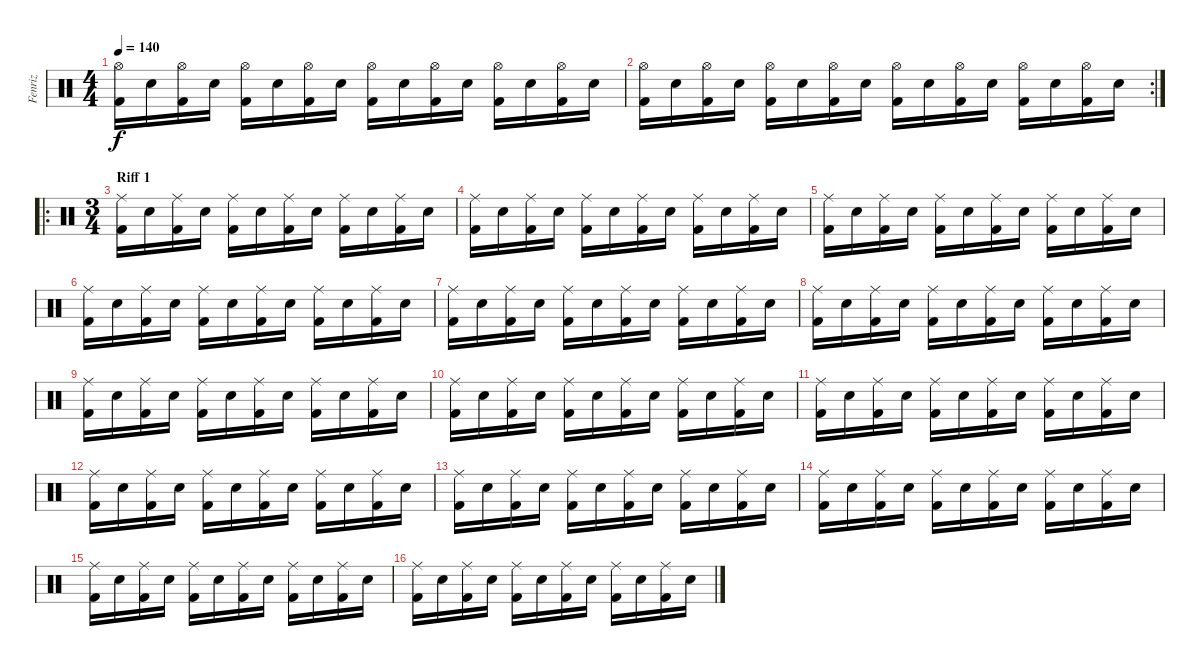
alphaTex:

\track ("Fenriz" "Fenriz") {instrument percussion}
\staff {score}
\articulation defaults
\ts (4 4)
\tempo 140
\clef neutral
\ks c
("Hi-Hat (open)" "Kick (hit) 2").16{dy f} "Snare (hit) 2".16 ("Hi-Hat (open)" "Kick (hit) 2").16 "Snare (hit) 2".16 ("Hi-Hat (open)" "Kick (hit) 2").16 "Snare (hit) 2".16 ("Hi-Hat (open)" "Kick (hit) 2").16 "Snare (hit) 2".16 ("Hi-Hat (open)" "Kick (hit) 2").16 "Snare (hit) 2".16 ("Hi-Hat (open)" "Kick (hit) 2").16 "Snare (hit) 2".16 ("Hi-Hat (open)" "Kick (hit) 2").16 "Snare (hit) 2".16 ("Hi-Hat (open)" "Kick (hit) 2").16 "Snare (hit) 2".16 |
\rc 2
("Hi-Hat (open)" "Kick (hit) 2").16 "Snare (hit) 2".16 ("Hi-Hat (open)" "Kick (hit) 2").16 "Snare (hit) 2".16 ("Hi-Hat (open)" "Kick (hit) 2").16 "Snare (hit) 2".16 ("Hi-Hat (open)" "Kick (hit) 2").16 "Snare (hit) 2".16 ("Hi-Hat (open)" "Kick (hit) 2").16 "Snare (hit) 2".16 ("Hi-Hat (open)" "Kick (hit) 2").16 "Snare (hit) 2".16 ("Hi-Hat (open)" "Kick (hit) 2").16 "Snare (hit) 2".16 ("Hi-Hat (open)" "Kick (hit) 2").16 "Snare (hit) 2".16 |
\ro
\ts (3 4)
\section ("" "Riff 1")
("Ride (middle)" "Kick (hit) 2").16 "Snare (hit) 2".16 ("Ride (middle)" "Kick (hit) 2").16 "Snare (hit) 2".16 ("Ride (middle)" "Kick (hit) 2").16 "Snare (hit) 2".16 ("Ride (middle)" "Kick (hit) 2").16 "Snare (hit) 2".16 ("Ride (middle)" "Kick (hit) 2").16 "Snare (hit) 2".16 ("Ride (middle)" "Kick (hit) 2").16 "Snare (hit) 2".16 |
("Ride (middle)" "Kick (hit) 2").16 "Snare (hit) 2".16 ("Ride (middle)" "Kick (hit) 2").16 "Snare (hit) 2".16 ("Ride (middle)" "Kick (hit) 2").16 "Snare (hit) 2".16 ("Ride (middle)" "Kick (hit) 2").16 "Snare (hit) 2".16 ("Ride (middle)" "Kick (hit) 2").16 "Snare (hit) 2".16 ("Ride (middle)" "Kick (hit) 2").16 "Snare (hit) 2".16 |
("Ride (middle)" "Kick (hit) 2").16 "Snare (hit) 2".16 ("Ride (middle)" "Kick (hit) 2").16 "Snare (hit) 2".16 ("Ride (middle)" "Kick (hit) 2").16 "Snare (hit) 2".16 ("Ride (middle)" "Kick (hit) 2").16 "Snare (hit) 2".16 ("Ride (middle)" "Kick (hit) 2").16 "Snare (hit) 2".16 ("Ride (middle)" "Kick (hit) 2").16 "Snare (hit) 2".16 |
("Ride (middle)" "Kick (hit) 2").16 "Snare (hit) 2".16 ("Ride (middle)" "Kick (hit) 2").16 "Snare (hit) 2".16 ("Ride (middle)" "Kick (hit) 2").16 "Snare (hit) 2".16 ("Ride (middle)" "Kick (hit) 2").16 "Snare (hit) 2".16 ("Ride (middle)" "Kick (hit) 2").16 "Snare (hit) 2".16 ("Ride (middle)" "Kick (hit) 2").16 "Snare (hit) 2".16 |
("Ride (middle)" "Kick (hit) 2").16 "Snare (hit) 2".16 ("Ride (middle)" "Kick (hit) 2").16 "Snare (hit) 2".16 ("Ride (middle)" "Kick (hit) 2").16 "Snare (hit) 2".16 ("Ride (middle)" "Kick (hit) 2").16 "Snare (hit) 2".16 ("Ride (middle)" "Kick (hit) 2").16 "Snare (hit) 2".16 ("Ride (middle)" "Kick (hit) 2").16 "Snare (hit) 2".16 |
("Ride (middle)" "Kick (hit) 2").16 "Snare (hit) 2".16 ("Ride (middle)" "Kick (hit) 2").16 "Snare (hit) 2".16 ("Ride (middle)" "Kick (hit) 2").16 "Snare (hit) 2".16 ("Ride (middle)" "Kick (hit) 2").16 "Snare (hit) 2".16 ("Ride (middle)" "Kick (hit) 2").16 "Snare (hit) 2".16 ("Ride (middle)" "Kick (hit) 2").16 "Snare (hit) 2".16 |
("Ride (middle)" "Kick (hit) 2").16 "Snare (hit) 2".16 ("Ride (middle)" "Kick (hit) 2").16 "Snare (hit) 2".16 ("Ride (middle)" "Kick (hit) 2").16 "Snare (hit) 2".16 ("Ride (middle)" "Kick (hit) 2").16 "Snare (hit) 2".16 ("Ride (middle)" "Kick (hit) 2").16 "Snare (hit) 2".16 ("Ride (middle)" "Kick (hit) 2").16 "Snare (hit) 2".16 |
("Ride (middle)" "Kick (hit) 2").16 "Snare (hit) 2".16 ("Ride (middle)" "Kick (hit) 2").16 "Snare (hit) 2".16 ("Ride (middle)" "Kick (hit) 2").16 "Snare (hit) 2".16 ("Ride (middle)" "Kick (hit) 2").16 "Snare (hit) 2".16 ("Ride (middle)" "Kick (hit) 2").16 "Snare (hit) 2".16 ("Ride (middle)" "Kick (hit) 2").16 "Snare (hit) 2".16 |
("Ride (middle)" "Kick (hit) 2").16 "Snare (hit) 2".16 ("Ride (middle)" "Kick (hit) 2").16 "Snare (hit) 2".16 ("Ride (middle)" "Kick (hit) 2").16 "Snare (hit) 2".16 ("Ride (middle)" "Kick (hit) 2").16 "Snare (hit) 2".16 ("Ride (middle)" "Kick (hit) 2").16 "Snare (hit) 2".16 ("Ride (middle)" "Kick (hit) 2").16 "Snare (hit) 2".16 |
("Ride (middle)" "Kick (hit) 2").16 "Snare (hit) 2".16 ("Ride (middle)" "Kick (hit) 2").16 "Snare (hit) 2".16 ("Ride (middle)" "Kick (hit) 2").16 "Snare (hit) 2".16 ("Ride (middle)" "Kick (hit) 2").16 "Snare (hit) 2".16 ("Ride (middle)" "Kick (hit) 2").16 "Snare (hit) 2".16 ("Ride (middle)" "Kick (hit) 2").16 "Snare (hit) 2".16 |
("Ride (middle)" "Kick (hit) 2").16 "Snare (hit) 2".16 ("Ride (middle)" "Kick (hit) 2").16 "Snare (hit) 2".16 ("Ride (middle)" "Kick (hit) 2").16 "Snare (hit) 2".16 ("Ride (middle)" "Kick (hit) 2").16 "Snare (hit) 2".16 ("Ride (middle)" "Kick (hit) 2").16 "Snare (hit) 2".16 ("Ride (middle)" "Kick (hit) 2").16 "Snare (hit) 2".16 |
("Ride (middle)" "Kick (hit) 2").16 "Snare (hit) 2".16 ("Ride (middle)" "Kick (hit) 2").16 "Snare (hit) 2".16 ("Ride (middle)" "Kick (hit) 2").16 "Snare (hit) 2".16 ("Ride (middle)" "Kick (hit) 2").16 "Snare (hit) 2".16 ("Ride (middle)" "Kick (hit) 2").16 "Snare (hit) 2".16 ("Ride (middle)" "Kick (hit) 2").16 "Snare (hit) 2".16 |
("Ride (middle)" "Kick (hit) 2").16 "Snare (hit) 2".16 ("Ride (middle)" "Kick (hit) 2").16 "Snare (hit) 2".16 ("Ride (middle)" "Kick (hit) 2").16 "Snare (hit) 2".16 ("Ride (middle)" "Kick (hit) 2").16 "Snare (hit) 2".16 ("Ride (middle)" "Kick (hit) 2").16 "Snare (hit) 2".16 ("Ride (middle)" "Kick (hit) 2").16 "Snare (hit) 2".16 |
("Ride (middle)" "Kick (hit) 2").16 "Snare (hit) 2".16 ("Ride (middle)" "Kick (hit) 2").16 "Snare (hit) 2".16 ("Ride (middle)" "Kick (hit) 2").16 "Snare (hit) 2".16 ("Ride (middle)" "Kick (hit) 2").16 "Snare (hit) 2".16 ("Ride (middle)" "Kick (hit) 2").16 "Snare (hit) 2".16 ("Ride (middle)" "Kick (hit) 2").16 "Snare (hit) 2".16
